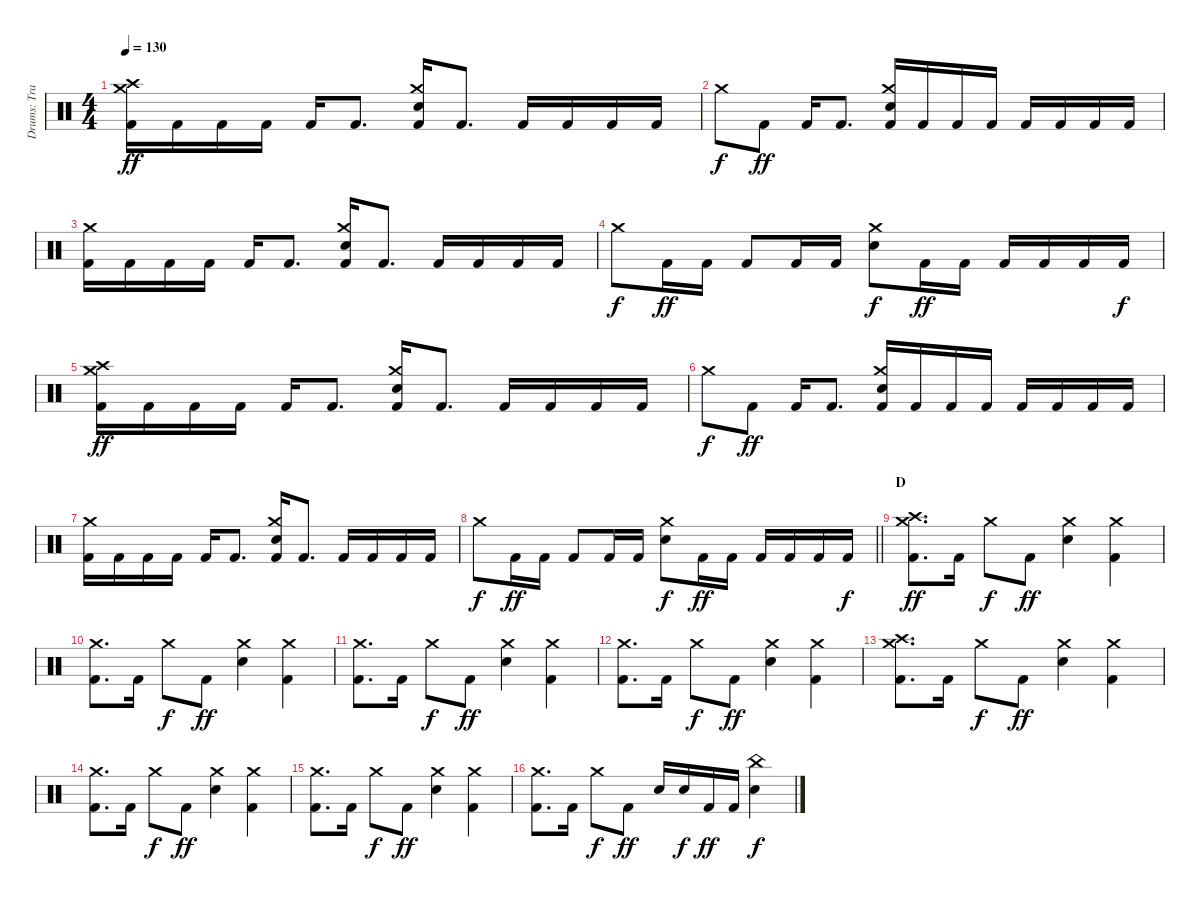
\track ("Drums: Travis Clarke" "Drums: Tra") {instrument percussion}
\staff {score}
\articulation defaults
\ts (4 4)
\tempo 130
\clef neutral
\ks c
("Kick (hit) 2" "Crash high (hit)" "Crash medium (hit)").16{dy ff} "Kick (hit) 2".16 "Kick (hit) 2".16 "Kick (hit) 2".16 "Kick (hit) 2".16 "Kick (hit) 2".8{d} ("Kick (hit) 2" "Snare (hit) 2" "Crash medium (hit)").16 "Kick (hit) 2".8{d} "Kick (hit) 2".16 "Kick (hit) 2".16 "Kick (hit) 2".16 "Kick (hit) 2".16 |
"Crash medium (hit)".8{dy f} "Kick (hit) 2".8{dy ff} "Kick (hit) 2".16 "Kick (hit) 2".8{d} ("Kick (hit) 2" "Snare (hit) 2" "Crash medium (hit)").16 "Kick (hit) 2".16 "Kick (hit) 2".16 "Kick (hit) 2".16 "Kick (hit) 2".16 "Kick (hit) 2".16 "Kick (hit) 2".16 "Kick (hit) 2".16 |
("Kick (hit) 2" "Crash medium (hit)").16 "Kick (hit) 2".16 "Kick (hit) 2".16 "Kick (hit) 2".16 "Kick (hit) 2".16 "Kick (hit) 2".8{d} ("Kick (hit) 2" "Snare (hit) 2" "Crash medium (hit)").16 "Kick (hit) 2".8{d} "Kick (hit) 2".16 "Kick (hit) 2".16 "Kick (hit) 2".16 "Kick (hit) 2".16 |
"Crash medium (hit)".8{dy f} "Kick (hit) 2".16{dy ff} "Kick (hit) 2".16 "Kick (hit) 2".8 "Kick (hit) 2".16 "Kick (hit) 2".16 ("Snare (hit) 2" "Crash medium (hit)").8{dy f} "Kick (hit) 2".16{dy ff} "Kick (hit) 2".16 "Kick (hit) 2".16 "Kick (hit) 2".16 "Kick (hit) 2".16 "Kick (hit) 2".16{dy f} |
("Kick (hit) 2" "Crash high (hit)" "Crash medium (hit)").16{dy ff} "Kick (hit) 2".16 "Kick (hit) 2".16 "Kick (hit) 2".16 "Kick (hit) 2".16 "Kick (hit) 2".8{d} ("Kick (hit) 2" "Snare (hit) 2" "Crash medium (hit)").16 "Kick (hit) 2".8{d} "Kick (hit) 2".16 "Kick (hit) 2".16 "Kick (hit) 2".16 "Kick (hit) 2".16 |
"Crash medium (hit)".8{dy f} "Kick (hit) 2".8{dy ff} "Kick (hit) 2".16 "Kick (hit) 2".8{d} ("Kick (hit) 2" "Snare (hit) 2" "Crash medium (hit)").16 "Kick (hit) 2".16 "Kick (hit) 2".16 "Kick (hit) 2".16 "Kick (hit) 2".16 "Kick (hit) 2".16 "Kick (hit) 2".16 "Kick (hit) 2".16 |
("Kick (hit) 2" "Crash medium (hit)").16 "Kick (hit) 2".16 "Kick (hit) 2".16 "Kick (hit) 2".16 "Kick (hit) 2".16 "Kick (hit) 2".8{d} ("Kick (hit) 2" "Snare (hit) 2" "Crash medium (hit)").16 "Kick (hit) 2".8{d} "Kick (hit) 2".16 "Kick (hit) 2".16 "Kick (hit) 2".16 "Kick (hit) 2".16 |
\barLineRight lightlight "Crash medium (hit)".8{dy f} "Kick (hit) 2".16{dy ff} "Kick (hit) 2".16 "Kick (hit) 2".8 "Kick (hit) 2".16 "Kick (hit) 2".16
("Snare (hit) 2" "Crash medium (hit)").8{dy f} "Kick (hit) 2".16{dy ff} "Kick (hit) 2".16 "Kick (hit) 2".16 "Kick (hit) 2".16 "Kick (hit) 2".16 "Kick (hit) 2".16{dy f} |
\section ("" "D")
("Kick (hit) 2" "Crash high (hit)" "Crash medium (hit)").8{d dy ff} "Kick (hit) 2".16 "Crash medium (hit)".8{dy f} "Kick (hit) 2".8{dy ff} ("Snare (hit) 2" "Crash medium (hit)").4 ("Kick (hit) 2" "Crash medium (hit)").4 |
("Kick (hit) 2" "Crash medium (hit)").8{d} "Kick (hit) 2".16 "Crash medium (hit)".8{dy f} "Kick (hit) 2".8{dy ff} ("Snare (hit) 2" "Crash medium (hit)").4 ("Kick (hit) 2" "Crash medium (hit)").4 |
("Kick (hit) 2" "Crash medium (hit)").8{d} "Kick (hit) 2".16 "Crash medium (hit)".8{dy f} "Kick (hit) 2".8{dy ff} ("Snare (hit) 2" "Crash medium (hit)").4 ("Kick (hit) 2" "Crash medium (hit)").4 |
("Kick (hit) 2" "Crash medium (hit)").8{d} "Kick (hit) 2".16 "Crash medium (hit)".8{dy f} "Kick (hit) 2".8{dy ff} ("Snare (hit) 2" "Crash medium (hit)").4 ("Kick (hit) 2" "Crash medium (hit)").4 |
("Kick (hit) 2" "Crash high (hit)" "Crash medium (hit)").8{d} "Kick (hit) 2".16 "Crash medium (hit)".8{dy f} "Kick (hit) 2".8{dy ff} ("Snare (hit) 2" "Crash medium (hit)").4 ("Kick (hit) 2" "Crash medium (hit)").4 |
("Kick (hit) 2" "Crash medium (hit)").8{d} "Kick (hit) 2".16 "Crash medium (hit)".8{dy f} "Kick (hit) 2".8{dy ff} ("Snare (hit) 2" "Crash medium (hit)").4 ("Kick (hit) 2" "Crash medium (hit)").4 |
("Kick (hit) 2" "Crash medium (hit)").8{d} "Kick (hit) 2".16 "Crash medium (hit)".8{dy f} "Kick (hit) 2".8{dy ff} ("Snare (hit) 2" "Crash medium (hit)").4 ("Kick (hit) 2" "Crash medium (hit)").4 |
("Kick (hit) 2" "Crash medium (hit)").8{d} "Kick (hit) 2".16 "Crash medium (hit)".8{dy f} "Kick (hit) 2".8{dy ff} "Snare (hit) 2".16 "Snare (hit) 2".16{dy f} "Kick (hit) 2".16{dy ff} "Kick (hit) 2".16 ("Snare (hit) 2" "China (hit)").4{dy f}
